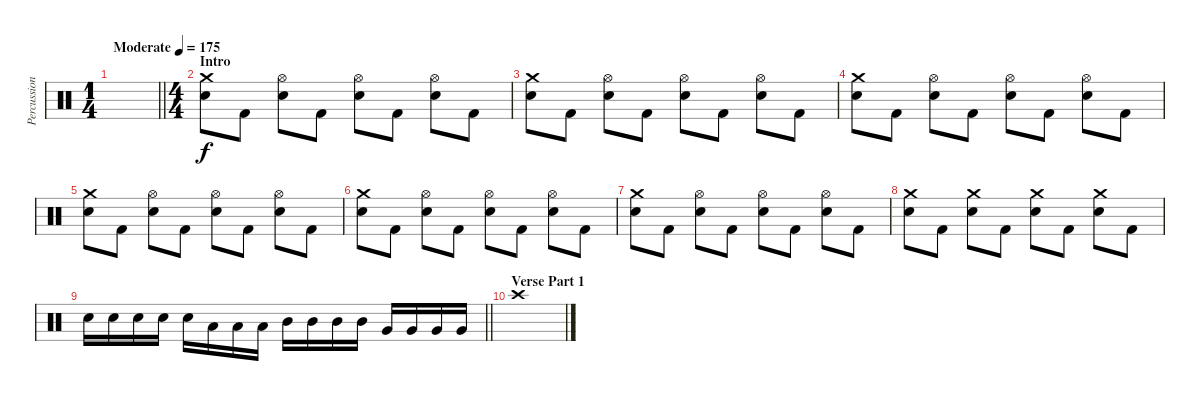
\track ("Percussion" "Percussion") {instrument percussion}
\staff {score}
\articulation defaults
\ts (1 4)
\tempo (175 "Moderate")
\clef neutral
\barLineRight lightlight
\ks c
|
\ts (4 4)
\section ("" "Intro")
("Crash medium (hit)" "Electric Snare (hit)").8 "Kick (hit) 2".8 ("Hi-Hat (open)" "Electric Snare (hit)").8 "Kick (hit) 2".8 ("Hi-Hat (open)" "Electric Snare (hit)").8 "Kick (hit) 2".8 ("Hi-Hat (open)" "Electric Snare (hit)").8 "Kick (hit) 2".8 |
("Crash medium (hit)" "Electric Snare (hit)").8 "Kick (hit) 2".8 ("Hi-Hat (open)" "Electric Snare (hit)").8 "Kick (hit) 2".8 ("Hi-Hat (open)" "Electric Snare (hit)").8 "Kick (hit) 2".8 ("Hi-Hat (open)" "Electric Snare (hit)").8 "Kick (hit) 2".8 |
("Crash medium (hit)" "Electric Snare (hit)").8 "Kick (hit) 2".8 ("Hi-Hat (open)" "Electric Snare (hit)").8 "Kick (hit) 2".8 ("Hi-Hat (open)" "Electric Snare (hit)").8 "Kick (hit) 2".8 ("Hi-Hat (open)" "Electric Snare (hit)").8 "Kick (hit) 2".8 |
("Crash medium (hit)" "Electric Snare (hit)").8 "Kick (hit) 2".8 ("Hi-Hat (open)" "Electric Snare (hit)").8 "Kick (hit) 2".8 ("Hi-Hat (open)" "Electric Snare (hit)").8 "Kick (hit) 2".8 ("Hi-Hat (open)" "Electric Snare (hit)").8 "Kick (hit) 2".8 |
("Crash medium (hit)" "Electric Snare (hit)").8 "Kick (hit) 2".8 ("Hi-Hat (open)" "Electric Snare (hit)").8 "Kick (hit) 2".8 ("Hi-Hat (open)" "Electric Snare (hit)").8 "Kick (hit) 2".8 ("Hi-Hat (open)" "Electric Snare (hit)").8 "Kick (hit) 2".8 |
("Crash medium (hit)" "Electric Snare (hit)").8 "Kick (hit) 2".8 ("Hi-Hat (open)" "Electric Snare (hit)").8 "Kick (hit) 2".8 ("Hi-Hat (open)" "Electric Snare (hit)").8 "Kick (hit) 2".8 ("Hi-Hat (open)" "Electric Snare (hit)").8 "Kick (hit) 2".8 |
("Crash medium (hit)" "Electric Snare (hit)").8 "Kick (hit) 2".8 ("Crash medium (hit)" "Electric Snare (hit)").8 "Kick (hit) 2".8 ("Crash medium (hit)" "Electric Snare (hit)").8 "Kick (hit) 2".8 ("Crash medium (hit)" "Electric Snare (hit)").8 "Kick (hit) 2".8 |
\barLineRight lightlight "Electric Snare (hit)".16 "Electric Snare (hit)".16 "Electric Snare (hit)".16 "Electric Snare (hit)".16 "Electric Snare (hit)".16 "Low Tom (hit)".16 "Low Tom (hit)".16 "Low Tom (hit)".16 "Mid Tom (hit)".16 "Mid Tom (hit)".16 "Mid Tom (hit)".16 "Mid Tom (hit)".16 "Very Low Tom (hit)".16 "Very Low Tom (hit)".16 "Very Low Tom (hit)".16 "Very Low Tom (hit)".16
|
\section ("" "Verse Part 1")
"Crash high (hit)".1
